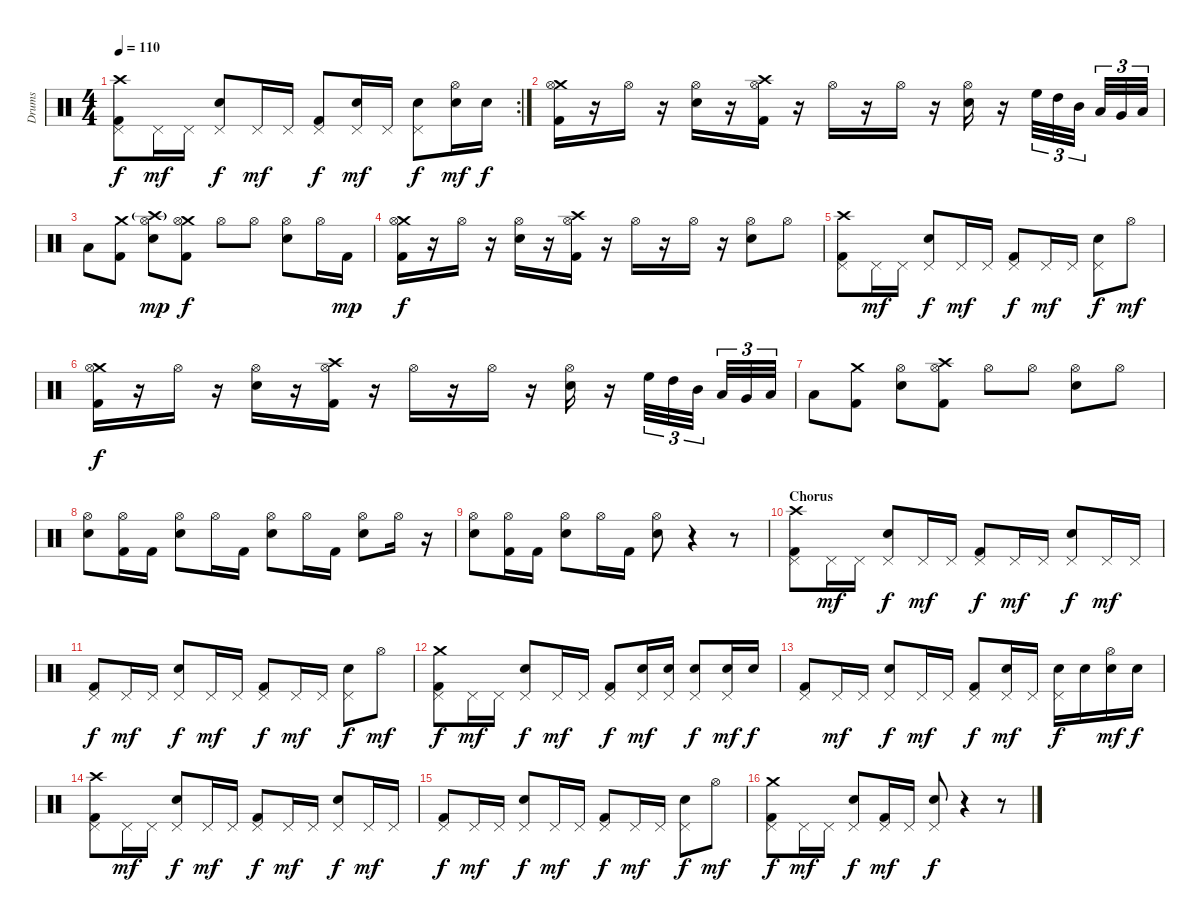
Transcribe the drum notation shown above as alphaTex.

\track ("Drums" "Drums") {instrument percussion}
\staff {score}
\articulation defaults
\rc 2
\ts (4 4)
\tempo 110
\clef neutral
\ks c
("Crash high (hit)" "Pedal Hi-Hat (hit)" "Kick (hit) 2").8{dy f} "Pedal Hi-Hat (hit)".16{dy mf} "Pedal Hi-Hat (hit)".16 ("Pedal Hi-Hat (hit)" "Snare (hit) 2").8{dy f} "Pedal Hi-Hat (hit)".16{dy mf} "Pedal Hi-Hat (hit)".16 ("Pedal Hi-Hat (hit)" "Kick (hit) 2").8{dy f} ("Pedal Hi-Hat (hit)" "Snare (hit) 2").16{dy mf} "Pedal Hi-Hat (hit)".16 ("Pedal Hi-Hat (hit)" "Snare (hit) 2").8{dy f} ("Hi-Hat (open)" "Snare (hit) 2").16{dy mf} "Snare (hit) 2".16{dy f} |
("Crash medium (hit)" "Hi-Hat (open)" "Kick (hit) 2").16 r.16 "Hi-Hat (open)".16 r.16 ("Hi-Hat (open)" "Snare (hit) 2").16 r.16 ("Crash high (hit)" "Hi-Hat (open)" "Kick (hit) 2").16 r.16 "Hi-Hat (open)".16 r.16 "Hi-Hat (open)".16 r.16 ("Hi-Hat (open)" "Snare (hit) 2").16 r.16 "High Floor Tom (hit)".32{tu (3 2)} "High Tom (hit)".32{tu (3 2)} "Mid Tom (hit)".32{tu (3 2)} "Low Tom (hit)".32{tu (3 2)} "Very Low Tom (hit)".32{tu (3 2)} "Low Floor Tom (hit)".32{tu (3 2)} |
"Low Tom (hit)".8 ("Crash medium (hit)" "Kick (hit) 2").8 ("Crash high (hit)"{g} "Hi-Hat (open)" "Snare (hit) 2").8{dy mp} ("Crash medium (hit)" "Hi-Hat (open)" "Kick (hit) 2").8{dy f} "Hi-Hat (open)".8 "Hi-Hat (open)".8 ("Hi-Hat (open)" "Snare (hit) 2").8 "Hi-Hat (open)".16 "Kick (hit) 2".16{dy mp} |
("Crash medium (hit)" "Hi-Hat (open)" "Kick (hit) 2").16{dy f} r.16 "Hi-Hat (open)".16 r.16 ("Hi-Hat (open)" "Snare (hit) 2").16 r.16 ("Crash high (hit)" "Hi-Hat (open)" "Kick (hit) 2").16 r.16 "Hi-Hat (open)".16 r.16 "Hi-Hat (open)".16 r.16 ("Hi-Hat (open)" "Snare (hit) 2").8 "Hi-Hat (open)".8 |
("Crash high (hit)" "Pedal Hi-Hat (hit)" "Kick (hit) 2").8 "Pedal Hi-Hat (hit)".16{dy mf} "Pedal Hi-Hat (hit)".16 ("Pedal Hi-Hat (hit)" "Snare (hit) 2").8{dy f} "Pedal Hi-Hat (hit)".16{dy mf} "Pedal Hi-Hat (hit)".16 ("Pedal Hi-Hat (hit)" "Kick (hit) 2").8{dy f} "Pedal Hi-Hat (hit)".16{dy mf} "Pedal Hi-Hat (hit)".16 ("Pedal Hi-Hat (hit)" "Snare (hit) 2").8{dy f} "Hi-Hat (open)".8{dy mf} |
("Crash medium (hit)" "Hi-Hat (open)" "Kick (hit) 2").16{dy f} r.16 "Hi-Hat (open)".16 r.16 ("Hi-Hat (open)" "Snare (hit) 2").16 r.16 ("Crash high (hit)" "Hi-Hat (open)" "Kick (hit) 2").16 r.16 "Hi-Hat (open)".16 r.16 "Hi-Hat (open)".16 r.16 ("Hi-Hat (open)" "Snare (hit) 2").16 r.16 "High Floor Tom (hit)".32{tu (3 2)} "High Tom (hit)".32{tu (3 2)} "Mid Tom (hit)".32{tu (3 2)} "Low Tom (hit)".32{tu (3 2)} "Very Low Tom (hit)".32{tu (3 2)} "Low Floor Tom (hit)".32{tu (3 2)} |
"Low Tom (hit)".8 ("Crash medium (hit)" "Kick (hit) 2").8 ("Hi-Hat (open)" "Snare (hit) 2").8 ("Crash high (hit)" "Hi-Hat (open)" "Kick (hit) 2").8 "Hi-Hat (open)".8 "Hi-Hat (open)".8 ("Hi-Hat (open)" "Snare (hit) 2").8 "Hi-Hat (open)".8 |
("Hi-Hat (open)" "Snare (hit) 2").8 ("Hi-Hat (open)" "Kick (hit) 2").16 "Kick (hit) 2".16 ("Hi-Hat (open)" "Snare (hit) 2").8 "Hi-Hat (open)".16 "Kick (hit) 2".16 ("Hi-Hat (open)" "Snare (hit) 2").8 "Hi-Hat (open)".16 "Kick (hit) 2".16 ("Hi-Hat (open)" "Snare (hit) 2").8 "Hi-Hat (open)".16 r.16 |
("Hi-Hat (open)" "Snare (hit) 2").8 ("Hi-Hat (open)" "Kick (hit) 2").16 "Kick (hit) 2".16 ("Hi-Hat (open)" "Snare (hit) 2").8 "Hi-Hat (open)".16 "Kick (hit) 2".16 ("Hi-Hat (open)" "Snare (hit) 2").8 r.4 r.8 |
\section ("" "Chorus")
("Crash high (hit)" "Pedal Hi-Hat (hit)" "Kick (hit) 2").8 "Pedal Hi-Hat (hit)".16{dy mf} "Pedal Hi-Hat (hit)".16 ("Pedal Hi-Hat (hit)" "Snare (hit) 2").8{dy f} "Pedal Hi-Hat (hit)".16{dy mf} "Pedal Hi-Hat (hit)".16 ("Pedal Hi-Hat (hit)" "Kick (hit) 2").8{dy f} "Pedal Hi-Hat (hit)".16{dy mf} "Pedal Hi-Hat (hit)".16 ("Pedal Hi-Hat (hit)" "Snare (hit) 2").8{dy f} "Pedal Hi-Hat (hit)".16{dy mf} "Pedal Hi-Hat (hit)".16 |
("Pedal Hi-Hat (hit)" "Kick (hit) 2").8{dy f} "Pedal Hi-Hat (hit)".16{dy mf} "Pedal Hi-Hat (hit)".16 ("Pedal Hi-Hat (hit)" "Snare (hit) 2").8{dy f} "Pedal Hi-Hat (hit)".16{dy mf} "Pedal Hi-Hat (hit)".16 ("Pedal Hi-Hat (hit)" "Kick (hit) 2").8{dy f} "Pedal Hi-Hat (hit)".16{dy mf} "Pedal Hi-Hat (hit)".16 ("Pedal Hi-Hat (hit)" "Snare (hit) 2").8{dy f} "Hi-Hat (open)".8{dy mf} |
("Crash medium (hit)" "Pedal Hi-Hat (hit)" "Kick (hit) 2").8{dy f} "Pedal Hi-Hat (hit)".16{dy mf} "Pedal Hi-Hat (hit)".16 ("Pedal Hi-Hat (hit)" "Snare (hit) 2").8{dy f} "Pedal Hi-Hat (hit)".16{dy mf} "Pedal Hi-Hat (hit)".16 ("Pedal Hi-Hat (hit)" "Kick (hit) 2").8{dy f} ("Pedal Hi-Hat (hit)" "Snare (hit) 2").16{dy mf} ("Pedal Hi-Hat (hit)" "Snare (hit) 2").16 ("Pedal Hi-Hat (hit)" "Snare (hit) 2").8{dy f} ("Pedal Hi-Hat (hit)" "Snare (hit) 2").16{dy mf} "Snare (hit) 2".16{dy f} |
("Pedal Hi-Hat (hit)" "Kick (hit) 2").8 "Pedal Hi-Hat (hit)".16{dy mf} "Pedal Hi-Hat (hit)".16 ("Pedal Hi-Hat (hit)" "Snare (hit) 2").8{dy f} "Pedal Hi-Hat (hit)".16{dy mf} "Pedal Hi-Hat (hit)".16 ("Pedal Hi-Hat (hit)" "Kick (hit) 2").8{dy f} ("Pedal Hi-Hat (hit)" "Snare (hit) 2").16{dy mf} "Pedal Hi-Hat (hit)".16 ("Pedal Hi-Hat (hit)" "Snare (hit) 2").16{dy f} "Snare (hit) 2".16 ("Hi-Hat (open)" "Snare (hit) 2").16{dy mf} "Snare (hit) 2".16{dy f} |
("Crash high (hit)" "Pedal Hi-Hat (hit)" "Kick (hit) 2").8 "Pedal Hi-Hat (hit)".16{dy mf} "Pedal Hi-Hat (hit)".16 ("Pedal Hi-Hat (hit)" "Snare (hit) 2").8{dy f} "Pedal Hi-Hat (hit)".16{dy mf} "Pedal Hi-Hat (hit)".16 ("Pedal Hi-Hat (hit)" "Kick (hit) 2").8{dy f} "Pedal Hi-Hat (hit)".16{dy mf} "Pedal Hi-Hat (hit)".16 ("Pedal Hi-Hat (hit)" "Snare (hit) 2").8{dy f} "Pedal Hi-Hat (hit)".16{dy mf} "Pedal Hi-Hat (hit)".16 |
("Pedal Hi-Hat (hit)" "Kick (hit) 2").8{dy f} "Pedal Hi-Hat (hit)".16{dy mf} "Pedal Hi-Hat (hit)".16 ("Pedal Hi-Hat (hit)" "Snare (hit) 2").8{dy f} "Pedal Hi-Hat (hit)".16{dy mf} "Pedal Hi-Hat (hit)".16 ("Pedal Hi-Hat (hit)" "Kick (hit) 2").8{dy f} "Pedal Hi-Hat (hit)".16{dy mf} "Pedal Hi-Hat (hit)".16 ("Pedal Hi-Hat (hit)" "Snare (hit) 2").8{dy f} "Hi-Hat (open)".8{dy mf} |
("Crash medium (hit)" "Pedal Hi-Hat (hit)" "Kick (hit) 2").8{dy f} "Pedal Hi-Hat (hit)".16{dy mf} "Pedal Hi-Hat (hit)".16 ("Pedal Hi-Hat (hit)" "Snare (hit) 2").8{dy f} ("Pedal Hi-Hat (hit)" "Kick (hit) 2").16{dy mf} "Pedal Hi-Hat (hit)".16 ("Pedal Hi-Hat (hit)" "Snare (hit) 2").8{dy f} r.4 r.8
